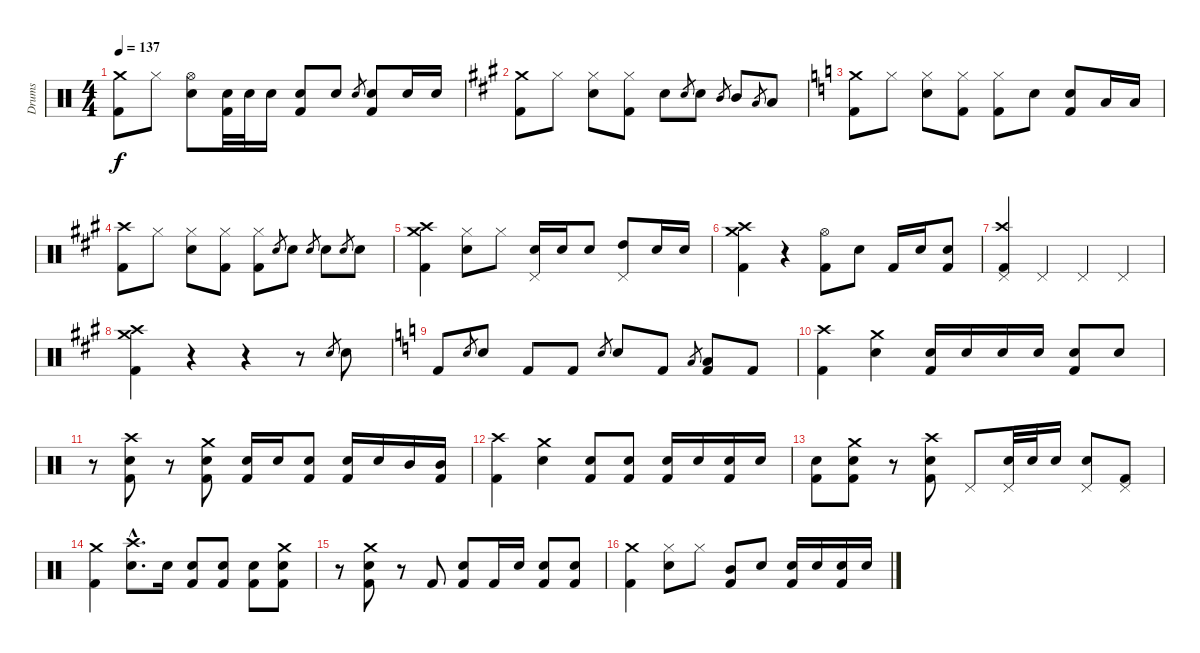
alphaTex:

\track ("Drums" "Drums") {instrument percussion}
\staff {score}
\articulation defaults
\ts (4 4)
\tempo 137
\clef neutral
\ks c
("Crash medium (hit)" "Kick (hit) 2").8{dy f} "Hi-Hat (closed)".8 ("Hi-Hat (open)" "Snare (hit) 2").8 ("Snare (hit) 2" "Kick (hit) 2").32 "Snare (hit) 2".32 "Snare (hit) 2".16 ("Snare (hit) 2" "Kick (hit) 2").8 "Snare (hit) 2".8 "Snare (hit) 2".8{gr} ("Snare (hit) 2" "Kick (hit) 2").8 "Snare (hit) 2".16 "Snare (hit) 2".16 |
\ks a
("Crash medium (hit)" "Kick (hit) 2").8 "Hi-Hat (closed)".8 ("Hi-Hat (closed)" "Snare (hit) 2").8 ("Hi-Hat (closed)" "Kick (hit) 2").8 "Snare (hit) 2".8 "Snare (hit) 2".8{gr} "Snare (hit) 2".8 "Mid Tom (hit)".8{gr} "Mid Tom (hit)".8 "Low Tom (hit)".8{gr} "Low Tom (hit)".8 |
\ks c
("Crash medium (hit)" "Kick (hit) 2").8 "Hi-Hat (closed)".8 ("Hi-Hat (closed)" "Snare (hit) 2").8 ("Hi-Hat (closed)" "Kick (hit) 2").8 ("Hi-Hat (closed)" "Kick (hit) 2").8 "Snare (hit) 2".8 ("Snare (hit) 2" "Kick (hit) 2").8 "Low Tom (hit)".16 "Low Tom (hit)".16 |
\ks a
("Crash high (hit)" "Kick (hit) 2").8 "Hi-Hat (closed)".8 ("Hi-Hat (closed)" "Snare (hit) 2").8 ("Hi-Hat (closed)" "Kick (hit) 2").8 ("Hi-Hat (closed)" "Kick (hit) 2").8 "Snare (hit) 2".8{gr} "Snare (hit) 2".8 "Snare (hit) 2".8{gr} "Snare (hit) 2".8 "Snare (hit) 2".8{gr} "Snare (hit) 2".8 |
("Crash high (hit)" "Crash medium (hit)" "Kick (hit) 2").4 ("Hi-Hat (closed)" "Snare (hit) 2").8 "Hi-Hat (closed)".8 ("Snare (hit) 2" "Pedal Hi-Hat (hit)").16 "Snare (hit) 2".16 "Snare (hit) 2".8 ("High Tom (hit)" "Pedal Hi-Hat (hit)").8 "Snare (hit) 2".16 "Snare (hit) 2".16 |
("Crash medium (hit)" "Crash high (hit)" "Kick (hit) 2").4 r.4 ("Hi-Hat (open)" "Kick (hit) 2").8 "Snare (hit) 2".8 "Kick (hit) 2".16 "Snare (hit) 2".16 ("Snare (hit) 2" "Kick (hit) 2").8 |
("Crash high (hit)" "Pedal Hi-Hat (hit)" "Kick (hit) 2").4 "Pedal Hi-Hat (hit)".4 "Pedal Hi-Hat (hit)".4 "Pedal Hi-Hat (hit)".4 |
("Crash medium (hit)" "Crash high (hit)" "Kick (hit) 2").4 r.4 r.4 r.8 "Snare (hit) 2".8{gr} "Snare (hit) 2".8 |
\ks c "Kick (hit) 2".8 "Snare (hit) 2".8{gr} "Snare (hit) 2".8 "Kick (hit) 2".8 "Kick (hit) 2".8 "Snare (hit) 2".8{gr} "Snare (hit) 2".8 "Kick (hit) 2".8 "Low Tom (hit)".8{gr}
("Low Tom (hit)" "Kick (hit) 2").8 "Kick (hit) 2".8 |
("Crash high (hit)" "Kick (hit) 2").4 ("Crash medium (hit)" "Snare (hit) 2").4 ("Snare (hit) 2" "Kick (hit) 2").16 "Snare (hit) 2".16 "Snare (hit) 2".16 "Snare (hit) 2".16 ("Snare (hit) 2" "Kick (hit) 2").8 "Snare (hit) 2".8 |
r.8 ("Crash high (hit)" "Snare (hit) 2" "Kick (hit) 2").8 r.8 ("Crash medium (hit)" "Snare (hit) 2" "Kick (hit) 2").8 ("Snare (hit) 2" "Kick (hit) 2").16 "Snare (hit) 2".16 ("Snare (hit) 2" "Kick (hit) 2").8 ("Snare (hit) 2" "Kick (hit) 2").16 "Snare (hit) 2".16 "Mid Tom (hit)".16 ("Mid Tom (hit)" "Kick (hit) 2").16 |
("Crash high (hit)" "Kick (hit) 2").4 ("Crash medium (hit)" "Snare (hit) 2").4 ("Snare (hit) 2" "Kick (hit) 2").8 ("Snare (hit) 2" "Kick (hit) 2").8 ("Snare (hit) 2" "Kick (hit) 2").16 "Snare (hit) 2".16 ("Snare (hit) 2" "Kick (hit) 2").16 "Snare (hit) 2".16 |
("Snare (hit) 2" "Kick (hit) 2").8 ("Crash medium (hit)" "Snare (hit) 2" "Kick (hit) 2").8 r.8 ("Crash high (hit)" "Snare (hit) 2" "Kick (hit) 2").8 "Pedal Hi-Hat (hit)".8 ("Snare (hit) 2" "Pedal Hi-Hat (hit)").32 "Snare (hit) 2".32 "Snare (hit) 2".16 ("Snare (hit) 2" "Pedal Hi-Hat (hit)").8 ("Kick (hit) 2" "Pedal Hi-Hat (hit)").8 |
("Crash medium (hit)" "Kick (hit) 2").4 ("Crash high (hit)"{hac} "Snare (hit) 2"{hac}).8{d} "Snare (hit) 2".16 ("Snare (hit) 2" "Kick (hit) 2").8 ("Snare (hit) 2" "Kick (hit) 2").8 ("Snare (hit) 2" "Kick (hit) 2").8 ("Crash medium (hit)" "Snare (hit) 2" "Kick (hit) 2").8 |
r.8 ("Crash medium (hit)" "Snare (hit) 2" "Kick (hit) 2").8 r.8 "Kick (hit) 2".8 ("Snare (hit) 2" "Kick (hit) 2").8 "Kick (hit) 2".16 "Snare (hit) 2".16 ("Snare (hit) 2" "Kick (hit) 2").8 ("Snare (hit) 2" "Kick (hit) 2").8 |
("Crash medium (hit)" "Kick (hit) 2").4 ("Hi-Hat (closed)" "Snare (hit) 2").8 "Hi-Hat (closed)".8 ("Mid Tom (hit)" "Kick (hit) 2").8 "Snare (hit) 2".8 ("Snare (hit) 2" "Kick (hit) 2").16 "Snare (hit) 2".16 ("Snare (hit) 2" "Kick (hit) 2").16 "Snare (hit) 2".16
